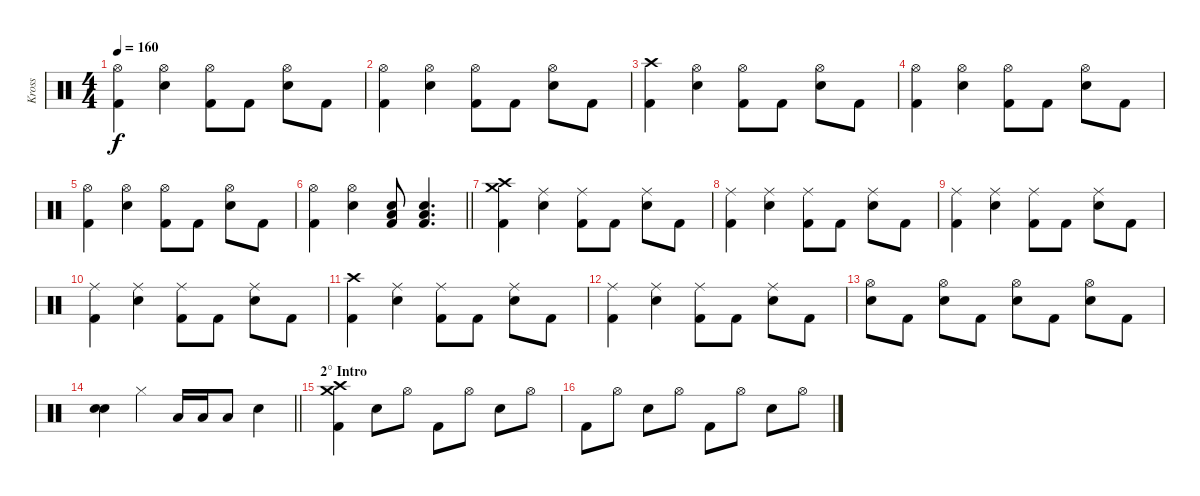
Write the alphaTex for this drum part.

\track ("Kross" "Kross") {instrument percussion}
\staff {score}
\articulation defaults
\ts (4 4)
\tempo 160
\clef neutral
\ks c
("Hi-Hat (open)" "Kick (hit) 2").4{dy f} ("Hi-Hat (open)" "Electric Snare (hit)").4 ("Hi-Hat (open)" "Kick (hit) 2").8 "Kick (hit) 2".8 ("Hi-Hat (open)" "Electric Snare (hit)").8 "Kick (hit) 2".8 |
("Hi-Hat (open)" "Kick (hit) 2").4 ("Hi-Hat (open)" "Electric Snare (hit)").4 ("Hi-Hat (open)" "Kick (hit) 2").8 "Kick (hit) 2".8 ("Hi-Hat (open)" "Electric Snare (hit)").8 "Kick (hit) 2".8 |
("Crash high (hit)" "Kick (hit) 2").4 ("Hi-Hat (open)" "Electric Snare (hit)").4 ("Hi-Hat (open)" "Kick (hit) 2").8 "Kick (hit) 2".8 ("Hi-Hat (open)" "Electric Snare (hit)").8 "Kick (hit) 2".8 |
("Hi-Hat (open)" "Kick (hit) 2").4 ("Hi-Hat (open)" "Electric Snare (hit)").4 ("Hi-Hat (open)" "Kick (hit) 2").8 "Kick (hit) 2".8 ("Hi-Hat (open)" "Electric Snare (hit)").8 "Kick (hit) 2".8 |
("Hi-Hat (open)" "Kick (hit) 2").4 ("Hi-Hat (open)" "Electric Snare (hit)").4 ("Hi-Hat (open)" "Kick (hit) 2").8 "Kick (hit) 2".8 ("Hi-Hat (open)" "Electric Snare (hit)").8 "Kick (hit) 2".8 |
\barLineRight lightlight
("Hi-Hat (open)" "Kick (hit) 2").4 ("Hi-Hat (open)" "Electric Snare (hit)").4 ("Electric Snare (hit)" "Low Floor Tom (hit)" "Kick (hit) 2").8 ("Electric Snare (hit)" "Low Floor Tom (hit)" "Kick (hit) 2").4{d} |
("Crash high (hit)" "Crash medium (hit)" "Kick (hit) 2").4 ("Ride (middle)" "Electric Snare (hit)").4 ("Ride (middle)" "Kick (hit) 2").8 "Kick (hit) 2".8 ("Ride (middle)" "Electric Snare (hit)").8 "Kick (hit) 2".8 |
("Ride (middle)" "Kick (hit) 2").4 ("Ride (middle)" "Electric Snare (hit)").4 ("Ride (middle)" "Kick (hit) 2").8 "Kick (hit) 2".8 ("Ride (middle)" "Electric Snare (hit)").8 "Kick (hit) 2".8 |
("Ride (middle)" "Kick (hit) 2").4 ("Ride (middle)" "Electric Snare (hit)").4 ("Ride (middle)" "Kick (hit) 2").8 "Kick (hit) 2".8 ("Ride (middle)" "Electric Snare (hit)").8 "Kick (hit) 2".8 |
("Ride (middle)" "Kick (hit) 2").4 ("Ride (middle)" "Electric Snare (hit)").4 ("Ride (middle)" "Kick (hit) 2").8 "Kick (hit) 2".8 ("Ride (middle)" "Electric Snare (hit)").8 "Kick (hit) 2".8 |
("Crash high (hit)" "Kick (hit) 2").4 ("Ride (middle)" "Electric Snare (hit)").4 ("Ride (middle)" "Kick (hit) 2").8 "Kick (hit) 2".8 ("Ride (middle)" "Electric Snare (hit)").8 "Kick (hit) 2".8 |
("Ride (middle)" "Kick (hit) 2").4 ("Ride (middle)" "Electric Snare (hit)").4 ("Ride (middle)" "Kick (hit) 2").8 "Kick (hit) 2".8 ("Ride (middle)" "Electric Snare (hit)").8 "Kick (hit) 2".8 |
("Hi-Hat (open)" "Electric Snare (hit)").8 "Kick (hit) 2".8 ("Hi-Hat (open)" "Electric Snare (hit)").8 "Kick (hit) 2".8 ("Hi-Hat (open)" "Electric Snare (hit)").8 "Kick (hit) 2".8 ("Hi-Hat (open)" "Electric Snare (hit)").8 "Kick (hit) 2".8 |
\barLineRight lightlight
("Electric Snare (hit)" "Electric Snare (hit)").4 "Hi-Hat (closed)".4 "Low Tom (hit)".16 "Low Tom (hit)".16 "Low Tom (hit)".8 "Electric Snare (hit)".4 |
\section ("" "2° Intro")
("Crash high (hit)" "Crash medium (hit)" "Kick (hit) 2").4 "Electric Snare (hit)".8 "Hi-Hat (open)".8 "Kick (hit) 2".8 "Hi-Hat (open)".8 "Electric Snare (hit)".8 "Hi-Hat (open)".8 |
"Kick (hit) 2".8 "Hi-Hat (open)".8 "Electric Snare (hit)".8 "Hi-Hat (open)".8 "Kick (hit) 2".8 "Hi-Hat (open)".8 "Electric Snare (hit)".8 "Hi-Hat (open)".8
